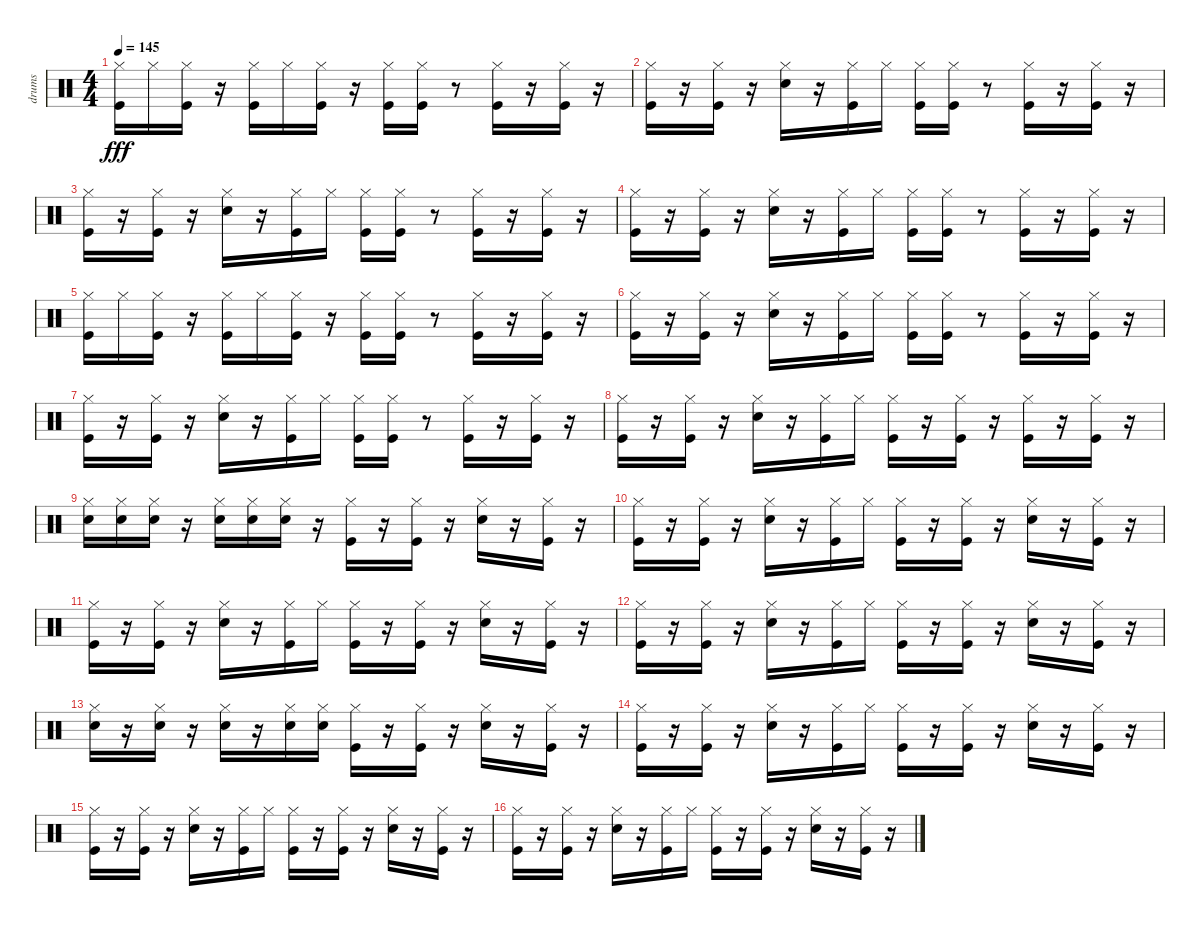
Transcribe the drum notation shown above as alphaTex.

\track ("drums" "drums") {instrument percussion}
\staff {score}
\articulation defaults
\ts (4 4)
\tempo 145
\clef neutral
\ks c
("Kick (hit)" "Hi-Hat (closed)").16{dy fff} "Hi-Hat (closed)".16 ("Kick (hit)" "Hi-Hat (closed)").16 r.16 ("Kick (hit)" "Hi-Hat (closed)").16 "Hi-Hat (closed)".16 ("Kick (hit)" "Hi-Hat (closed)").16 r.16 ("Kick (hit)" "Hi-Hat (closed)").16 ("Kick (hit)" "Hi-Hat (closed)").16 r.8 ("Kick (hit)" "Hi-Hat (closed)").16 r.16 ("Kick (hit)" "Hi-Hat (closed)").16 r.16 |
("Kick (hit)" "Hi-Hat (closed)").16 r.16 ("Kick (hit)" "Hi-Hat (closed)").16 r.16 ("Snare (hit) 2" "Hi-Hat (closed)").16 r.16 ("Kick (hit)" "Hi-Hat (closed)").16 "Hi-Hat (closed)".16 ("Kick (hit)" "Hi-Hat (closed)").16 ("Kick (hit)" "Hi-Hat (closed)").16 r.8 ("Kick (hit)" "Hi-Hat (closed)").16 r.16 ("Kick (hit)" "Hi-Hat (closed)").16 r.16 |
("Kick (hit)" "Hi-Hat (closed)").16 r.16 ("Kick (hit)" "Hi-Hat (closed)").16 r.16 ("Snare (hit) 2" "Hi-Hat (closed)").16 r.16 ("Kick (hit)" "Hi-Hat (closed)").16 "Hi-Hat (closed)".16 ("Kick (hit)" "Hi-Hat (closed)").16 ("Kick (hit)" "Hi-Hat (closed)").16 r.8 ("Kick (hit)" "Hi-Hat (closed)").16 r.16 ("Kick (hit)" "Hi-Hat (closed)").16 r.16 |
("Kick (hit)" "Hi-Hat (closed)").16 r.16 ("Kick (hit)" "Hi-Hat (closed)").16 r.16 ("Snare (hit) 2" "Hi-Hat (closed)").16 r.16 ("Kick (hit)" "Hi-Hat (closed)").16 "Hi-Hat (closed)".16 ("Kick (hit)" "Hi-Hat (closed)").16 ("Kick (hit)" "Hi-Hat (closed)").16 r.8 ("Kick (hit)" "Hi-Hat (closed)").16 r.16 ("Kick (hit)" "Hi-Hat (closed)").16 r.16 |
("Kick (hit)" "Hi-Hat (closed)").16 "Hi-Hat (closed)".16 ("Kick (hit)" "Hi-Hat (closed)").16 r.16 ("Kick (hit)" "Hi-Hat (closed)").16 "Hi-Hat (closed)".16 ("Kick (hit)" "Hi-Hat (closed)").16 r.16 ("Kick (hit)" "Hi-Hat (closed)").16 ("Kick (hit)" "Hi-Hat (closed)").16 r.8 ("Kick (hit)" "Hi-Hat (closed)").16 r.16 ("Kick (hit)" "Hi-Hat (closed)").16 r.16 |
("Kick (hit)" "Hi-Hat (closed)").16 r.16 ("Kick (hit)" "Hi-Hat (closed)").16 r.16 ("Snare (hit) 2" "Hi-Hat (closed)").16 r.16 ("Kick (hit)" "Hi-Hat (closed)").16 "Hi-Hat (closed)".16 ("Kick (hit)" "Hi-Hat (closed)").16 ("Kick (hit)" "Hi-Hat (closed)").16 r.8 ("Kick (hit)" "Hi-Hat (closed)").16 r.16 ("Kick (hit)" "Hi-Hat (closed)").16 r.16 |
("Kick (hit)" "Hi-Hat (closed)").16 r.16 ("Kick (hit)" "Hi-Hat (closed)").16 r.16 ("Snare (hit) 2" "Hi-Hat (closed)").16 r.16 ("Kick (hit)" "Hi-Hat (closed)").16 "Hi-Hat (closed)".16 ("Kick (hit)" "Hi-Hat (closed)").16 ("Kick (hit)" "Hi-Hat (closed)").16 r.8 ("Kick (hit)" "Hi-Hat (closed)").16 r.16 ("Kick (hit)" "Hi-Hat (closed)").16 r.16 |
("Kick (hit)" "Hi-Hat (closed)").16 r.16 ("Kick (hit)" "Hi-Hat (closed)").16 r.16 ("Snare (hit) 2" "Hi-Hat (closed)").16 r.16 ("Kick (hit)" "Hi-Hat (closed)").16 "Hi-Hat (closed)".16 ("Kick (hit)" "Hi-Hat (closed)").16 r.16 ("Kick (hit)" "Hi-Hat (closed)").16 r.16 ("Kick (hit)" "Hi-Hat (closed)").16 r.16 ("Kick (hit)" "Hi-Hat (closed)").16 r.16 |
("Snare (hit) 2" "Hi-Hat (closed)").16 ("Snare (hit) 2" "Hi-Hat (closed)").16 ("Snare (hit) 2" "Hi-Hat (closed)").16 r.16 ("Snare (hit) 2" "Hi-Hat (closed)").16 ("Snare (hit) 2" "Hi-Hat (closed)").16 ("Snare (hit) 2" "Hi-Hat (closed)").16 r.16 ("Kick (hit)" "Hi-Hat (closed)").16 r.16 ("Kick (hit)" "Hi-Hat (closed)").16 r.16 ("Snare (hit) 2" "Hi-Hat (closed)").16 r.16 ("Kick (hit)" "Hi-Hat (closed)").16 r.16 |
("Kick (hit)" "Hi-Hat (closed)").16 r.16 ("Kick (hit)" "Hi-Hat (closed)").16 r.16 ("Snare (hit) 2" "Hi-Hat (closed)").16 r.16 ("Kick (hit)" "Hi-Hat (closed)").16 "Hi-Hat (closed)".16 ("Kick (hit)" "Hi-Hat (closed)").16 r.16 ("Kick (hit)" "Hi-Hat (closed)").16 r.16 ("Snare (hit) 2" "Hi-Hat (closed)").16 r.16 ("Kick (hit)" "Hi-Hat (closed)").16 r.16 |
("Kick (hit)" "Hi-Hat (closed)").16 r.16 ("Kick (hit)" "Hi-Hat (closed)").16 r.16 ("Snare (hit) 2" "Hi-Hat (closed)").16 r.16 ("Kick (hit)" "Hi-Hat (closed)").16 "Hi-Hat (closed)".16 ("Kick (hit)" "Hi-Hat (closed)").16 r.16 ("Kick (hit)" "Hi-Hat (closed)").16 r.16 ("Snare (hit) 2" "Hi-Hat (closed)").16 r.16 ("Kick (hit)" "Hi-Hat (closed)").16 r.16 |
("Kick (hit)" "Hi-Hat (closed)").16 r.16 ("Kick (hit)" "Hi-Hat (closed)").16 r.16 ("Snare (hit) 2" "Hi-Hat (closed)").16 r.16 ("Kick (hit)" "Hi-Hat (closed)").16 "Hi-Hat (closed)".16 ("Kick (hit)" "Hi-Hat (closed)").16 r.16 ("Kick (hit)" "Hi-Hat (closed)").16 r.16 ("Snare (hit) 2" "Hi-Hat (closed)").16 r.16 ("Kick (hit)" "Hi-Hat (closed)").16 r.16 |
("Snare (hit) 2" "Hi-Hat (closed)").16 r.16 ("Snare (hit) 2" "Hi-Hat (closed)").16 r.16 ("Snare (hit) 2" "Hi-Hat (closed)").16 r.16 ("Snare (hit) 2" "Hi-Hat (closed)").16 ("Snare (hit) 2" "Hi-Hat (closed)").16 ("Kick (hit)" "Hi-Hat (closed)").16 r.16 ("Kick (hit)" "Hi-Hat (closed)").16 r.16 ("Snare (hit) 2" "Hi-Hat (closed)").16 r.16 ("Kick (hit)" "Hi-Hat (closed)").16 r.16 |
("Kick (hit)" "Hi-Hat (closed)").16 r.16 ("Kick (hit)" "Hi-Hat (closed)").16 r.16 ("Snare (hit) 2" "Hi-Hat (closed)").16 r.16 ("Kick (hit)" "Hi-Hat (closed)").16 "Hi-Hat (closed)".16 ("Kick (hit)" "Hi-Hat (closed)").16 r.16 ("Kick (hit)" "Hi-Hat (closed)").16 r.16 ("Snare (hit) 2" "Hi-Hat (closed)").16 r.16 ("Kick (hit)" "Hi-Hat (closed)").16 r.16 |
("Kick (hit)" "Hi-Hat (closed)").16 r.16 ("Kick (hit)" "Hi-Hat (closed)").16 r.16 ("Snare (hit) 2" "Hi-Hat (closed)").16 r.16 ("Kick (hit)" "Hi-Hat (closed)").16 "Hi-Hat (closed)".16 ("Kick (hit)" "Hi-Hat (closed)").16 r.16 ("Kick (hit)" "Hi-Hat (closed)").16 r.16 ("Snare (hit) 2" "Hi-Hat (closed)").16 r.16 ("Kick (hit)" "Hi-Hat (closed)").16 r.16 |
("Kick (hit)" "Hi-Hat (closed)").16 r.16 ("Kick (hit)" "Hi-Hat (closed)").16 r.16 ("Snare (hit) 2" "Hi-Hat (closed)").16 r.16 ("Kick (hit)" "Hi-Hat (closed)").16 "Hi-Hat (closed)".16 ("Kick (hit)" "Hi-Hat (closed)").16 r.16 ("Kick (hit)" "Hi-Hat (closed)").16 r.16 ("Snare (hit) 2" "Hi-Hat (closed)").16 r.16 ("Kick (hit)" "Hi-Hat (closed)").16 r.16
